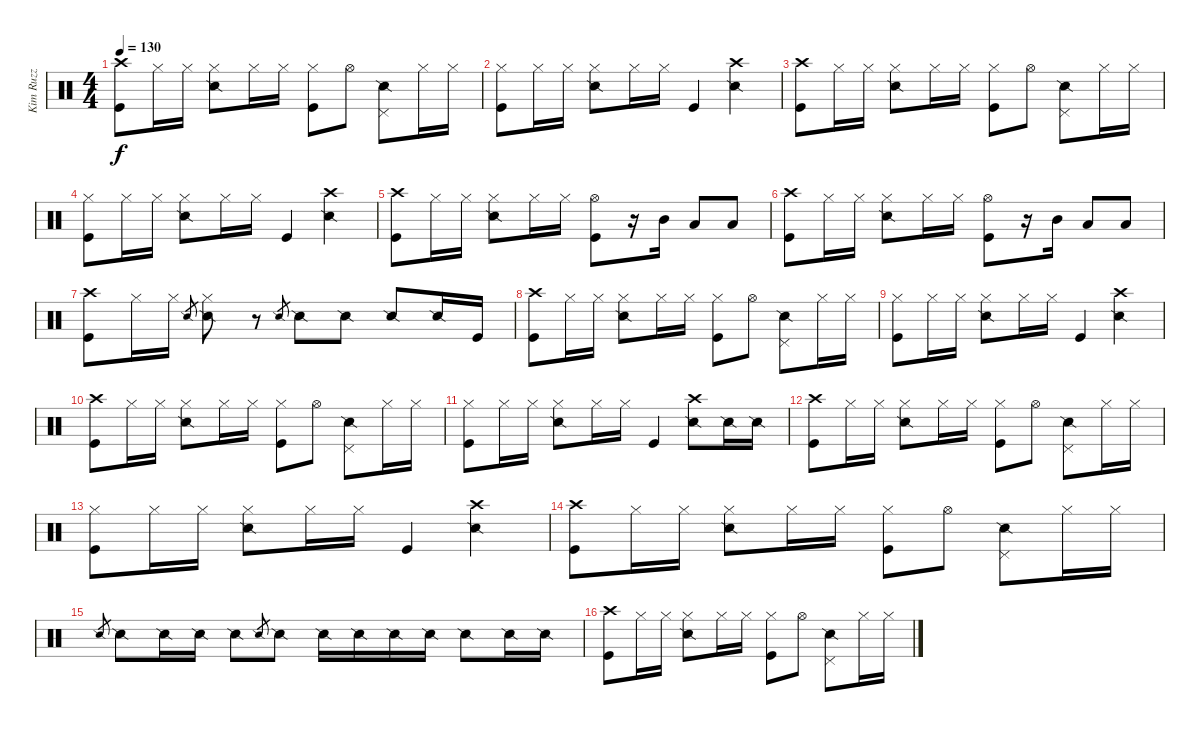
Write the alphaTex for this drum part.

\track ("Kim Ruzz" "Kim Ruzz") {instrument percussion}
\staff {score}
\articulation defaults
\ts (4 4)
\tempo 130
\clef neutral
\ks c
("Crash high (hit)" "Kick (hit)").8{dy f} "Hi-Hat (closed)".16 "Hi-Hat (closed)".16 ("Hi-Hat (closed)" "Snare (side stick) 2").8 "Hi-Hat (closed)".16 "Hi-Hat (closed)".16 ("Hi-Hat (closed)" "Kick (hit)").8 "Hi-Hat (open)".8 ("Pedal Hi-Hat (hit)" "Snare (side stick) 2").8 "Hi-Hat (closed)".16 "Hi-Hat (closed)".16 |
("Hi-Hat (closed)" "Kick (hit)").8 "Hi-Hat (closed)".16 "Hi-Hat (closed)".16 ("Hi-Hat (closed)" "Snare (side stick) 2").8 "Hi-Hat (closed)".16 "Hi-Hat (closed)".16 "Kick (hit)".4 ("Crash high (hit)" "Snare (side stick) 2").4 |
("Crash high (hit)" "Kick (hit)").8 "Hi-Hat (closed)".16 "Hi-Hat (closed)".16 ("Hi-Hat (closed)" "Snare (side stick) 2").8 "Hi-Hat (closed)".16 "Hi-Hat (closed)".16 ("Hi-Hat (closed)" "Kick (hit)").8 "Hi-Hat (open)".8 ("Pedal Hi-Hat (hit)" "Snare (side stick) 2").8 "Hi-Hat (closed)".16 "Hi-Hat (closed)".16 |
("Hi-Hat (closed)" "Kick (hit)").8 "Hi-Hat (closed)".16 "Hi-Hat (closed)".16 ("Hi-Hat (closed)" "Snare (side stick) 2").8 "Hi-Hat (closed)".16 "Hi-Hat (closed)".16 "Kick (hit)".4 ("Crash high (hit)" "Snare (side stick) 2").4 |
("Crash high (hit)" "Kick (hit)").8 "Hi-Hat (closed)".16 "Hi-Hat (closed)".16 ("Hi-Hat (closed)" "Snare (side stick) 2").8 "Hi-Hat (closed)".16 "Hi-Hat (closed)".16 ("Hi-Hat (open)" "Kick (hit)").8 r.16 "Mid Tom (hit)".16 "Low Tom (hit)".8 "Low Tom (hit)".8 |
("Crash high (hit)" "Kick (hit)").8 "Hi-Hat (closed)".16 "Hi-Hat (closed)".16 ("Hi-Hat (closed)" "Snare (side stick) 2").8 "Hi-Hat (closed)".16 "Hi-Hat (closed)".16 ("Hi-Hat (open)" "Kick (hit)").8 r.16 "Mid Tom (hit)".16 "Low Tom (hit)".8 "Low Tom (hit)".8 |
("Crash high (hit)" "Kick (hit)").8 "Hi-Hat (closed)".16 "Hi-Hat (closed)".16 "Snare (side stick) 2".8{gr} ("Hi-Hat (closed)" "Snare (side stick) 2").8 r.8 "Snare (side stick) 2".8{gr} "Snare (side stick) 2".8 "Snare (side stick) 2".8 "Snare (side stick) 2".8 "Snare (side stick) 2".16 "Kick (hit)".16 |
("Crash high (hit)" "Kick (hit)").8 "Hi-Hat (closed)".16 "Hi-Hat (closed)".16 ("Hi-Hat (closed)" "Snare (side stick) 2").8 "Hi-Hat (closed)".16 "Hi-Hat (closed)".16 ("Hi-Hat (closed)" "Kick (hit)").8 "Hi-Hat (open)".8 ("Pedal Hi-Hat (hit)" "Snare (side stick) 2").8 "Hi-Hat (closed)".16 "Hi-Hat (closed)".16 |
("Hi-Hat (closed)" "Kick (hit)").8 "Hi-Hat (closed)".16 "Hi-Hat (closed)".16 ("Hi-Hat (closed)" "Snare (side stick) 2").8 "Hi-Hat (closed)".16 "Hi-Hat (closed)".16 "Kick (hit)".4 ("Crash high (hit)" "Snare (side stick) 2").4 |
("Crash high (hit)" "Kick (hit)").8 "Hi-Hat (closed)".16 "Hi-Hat (closed)".16 ("Hi-Hat (closed)" "Snare (side stick) 2").8 "Hi-Hat (closed)".16 "Hi-Hat (closed)".16 ("Hi-Hat (closed)" "Kick (hit)").8 "Hi-Hat (open)".8 ("Pedal Hi-Hat (hit)" "Snare (side stick) 2").8 "Hi-Hat (closed)".16 "Hi-Hat (closed)".16 |
("Hi-Hat (closed)" "Kick (hit)").8 "Hi-Hat (closed)".16 "Hi-Hat (closed)".16 ("Hi-Hat (closed)" "Snare (side stick) 2").8 "Hi-Hat (closed)".16 "Hi-Hat (closed)".16 "Kick (hit)".4 ("Crash high (hit)" "Snare (side stick) 2").8 "Snare (side stick) 2".16 "Snare (side stick) 2".16 |
("Crash high (hit)" "Kick (hit)").8 "Hi-Hat (closed)".16 "Hi-Hat (closed)".16 ("Hi-Hat (closed)" "Snare (side stick) 2").8 "Hi-Hat (closed)".16 "Hi-Hat (closed)".16 ("Hi-Hat (closed)" "Kick (hit)").8 "Hi-Hat (open)".8 ("Pedal Hi-Hat (hit)" "Snare (side stick) 2").8 "Hi-Hat (closed)".16 "Hi-Hat (closed)".16 |
("Hi-Hat (closed)" "Kick (hit)").8 "Hi-Hat (closed)".16 "Hi-Hat (closed)".16 ("Hi-Hat (closed)" "Snare (side stick) 2").8 "Hi-Hat (closed)".16 "Hi-Hat (closed)".16 "Kick (hit)".4 ("Crash high (hit)" "Snare (side stick) 2").4 |
("Crash high (hit)" "Kick (hit)").8 "Hi-Hat (closed)".16 "Hi-Hat (closed)".16 ("Hi-Hat (closed)" "Snare (side stick) 2").8 "Hi-Hat (closed)".16 "Hi-Hat (closed)".16 ("Hi-Hat (closed)" "Kick (hit)").8 "Hi-Hat (open)".8 ("Pedal Hi-Hat (hit)" "Snare (side stick) 2").8 "Hi-Hat (closed)".16 "Hi-Hat (closed)".16 |
"Snare (side stick) 2".8{gr} "Snare (side stick) 2".8 "Snare (side stick) 2".16 "Snare (side stick) 2".16 "Snare (side stick) 2".8 "Snare (side stick) 2".8{gr} "Snare (side stick) 2".8 "Snare (side stick) 2".16 "Snare (side stick) 2".16 "Snare (side stick) 2".16 "Snare (side stick) 2".16 "Snare (side stick) 2".8 "Snare (side stick) 2".16 "Snare (side stick) 2".16 |
("Crash high (hit)" "Kick (hit)").8 "Hi-Hat (closed)".16 "Hi-Hat (closed)".16 ("Hi-Hat (closed)" "Snare (side stick) 2").8 "Hi-Hat (closed)".16 "Hi-Hat (closed)".16 ("Hi-Hat (closed)" "Kick (hit)").8 "Hi-Hat (open)".8 ("Pedal Hi-Hat (hit)" "Snare (side stick) 2").8 "Hi-Hat (closed)".16 "Hi-Hat (closed)".16
